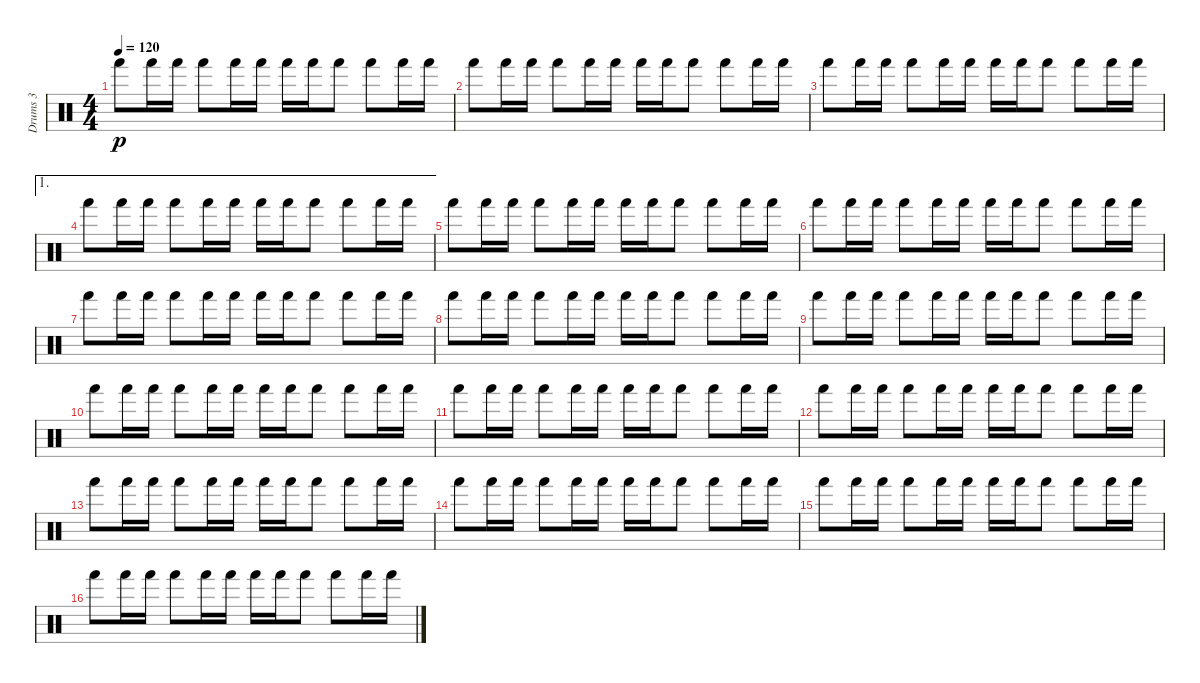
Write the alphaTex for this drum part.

\track ("Drums 3" "Drums 3") {instrument percussion}
\staff {score}
\articulation defaults
\ts (4 4)
\tempo 120
\clef neutral
\ks c "Hand (hit)".8{dy p} "Hand (hit)".16 "Hand (hit)".16 "Hand (hit)".8 "Hand (hit)".16 "Hand (hit)".16 "Hand (hit)".16 "Hand (hit)".16 "Hand (hit)".8 "Hand (hit)".8 "Hand (hit)".16 "Hand (hit)".16
|
"Hand (hit)".8 "Hand (hit)".16 "Hand (hit)".16 "Hand (hit)".8 "Hand (hit)".16 "Hand (hit)".16 "Hand (hit)".16 "Hand (hit)".16 "Hand (hit)".8 "Hand (hit)".8 "Hand (hit)".16 "Hand (hit)".16 |
"Hand (hit)".8 "Hand (hit)".16 "Hand (hit)".16 "Hand (hit)".8 "Hand (hit)".16 "Hand (hit)".16 "Hand (hit)".16 "Hand (hit)".16 "Hand (hit)".8 "Hand (hit)".8 "Hand (hit)".16 "Hand (hit)".16 |
\ae 1 "Hand (hit)".8 "Hand (hit)".16 "Hand (hit)".16 "Hand (hit)".8 "Hand (hit)".16 "Hand (hit)".16 "Hand (hit)".16 "Hand (hit)".16 "Hand (hit)".8 "Hand (hit)".8 "Hand (hit)".16 "Hand (hit)".16
|
"Hand (hit)".8 "Hand (hit)".16 "Hand (hit)".16 "Hand (hit)".8 "Hand (hit)".16 "Hand (hit)".16 "Hand (hit)".16 "Hand (hit)".16 "Hand (hit)".8 "Hand (hit)".8 "Hand (hit)".16 "Hand (hit)".16 |
"Hand (hit)".8 "Hand (hit)".16 "Hand (hit)".16 "Hand (hit)".8 "Hand (hit)".16 "Hand (hit)".16 "Hand (hit)".16 "Hand (hit)".16 "Hand (hit)".8 "Hand (hit)".8 "Hand (hit)".16 "Hand (hit)".16 |
"Hand (hit)".8 "Hand (hit)".16 "Hand (hit)".16 "Hand (hit)".8 "Hand (hit)".16 "Hand (hit)".16 "Hand (hit)".16 "Hand (hit)".16 "Hand (hit)".8 "Hand (hit)".8 "Hand (hit)".16 "Hand (hit)".16 |
"Hand (hit)".8 "Hand (hit)".16 "Hand (hit)".16 "Hand (hit)".8 "Hand (hit)".16 "Hand (hit)".16 "Hand (hit)".16 "Hand (hit)".16 "Hand (hit)".8 "Hand (hit)".8 "Hand (hit)".16 "Hand (hit)".16 |
"Hand (hit)".8 "Hand (hit)".16 "Hand (hit)".16 "Hand (hit)".8 "Hand (hit)".16 "Hand (hit)".16 "Hand (hit)".16 "Hand (hit)".16 "Hand (hit)".8 "Hand (hit)".8 "Hand (hit)".16 "Hand (hit)".16 |
"Hand (hit)".8 "Hand (hit)".16 "Hand (hit)".16 "Hand (hit)".8 "Hand (hit)".16 "Hand (hit)".16 "Hand (hit)".16 "Hand (hit)".16 "Hand (hit)".8 "Hand (hit)".8 "Hand (hit)".16 "Hand (hit)".16 |
"Hand (hit)".8 "Hand (hit)".16 "Hand (hit)".16 "Hand (hit)".8 "Hand (hit)".16 "Hand (hit)".16 "Hand (hit)".16 "Hand (hit)".16 "Hand (hit)".8 "Hand (hit)".8 "Hand (hit)".16 "Hand (hit)".16 |
"Hand (hit)".8 "Hand (hit)".16 "Hand (hit)".16 "Hand (hit)".8 "Hand (hit)".16 "Hand (hit)".16 "Hand (hit)".16 "Hand (hit)".16 "Hand (hit)".8 "Hand (hit)".8 "Hand (hit)".16 "Hand (hit)".16 |
"Hand (hit)".8 "Hand (hit)".16 "Hand (hit)".16 "Hand (hit)".8 "Hand (hit)".16 "Hand (hit)".16 "Hand (hit)".16 "Hand (hit)".16 "Hand (hit)".8 "Hand (hit)".8 "Hand (hit)".16 "Hand (hit)".16 |
"Hand (hit)".8 "Hand (hit)".16 "Hand (hit)".16 "Hand (hit)".8 "Hand (hit)".16 "Hand (hit)".16 "Hand (hit)".16 "Hand (hit)".16 "Hand (hit)".8 "Hand (hit)".8 "Hand (hit)".16 "Hand (hit)".16 |
"Hand (hit)".8 "Hand (hit)".16 "Hand (hit)".16 "Hand (hit)".8 "Hand (hit)".16 "Hand (hit)".16 "Hand (hit)".16 "Hand (hit)".16 "Hand (hit)".8 "Hand (hit)".8 "Hand (hit)".16 "Hand (hit)".16 |
"Hand (hit)".8 "Hand (hit)".16 "Hand (hit)".16 "Hand (hit)".8 "Hand (hit)".16 "Hand (hit)".16 "Hand (hit)".16 "Hand (hit)".16 "Hand (hit)".8 "Hand (hit)".8 "Hand (hit)".16 "Hand (hit)".16
